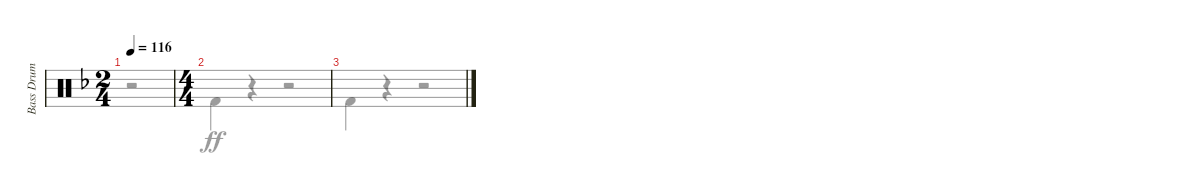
\track ("Bass Drum" "Bass Drum") {instrument percussion}
\staff {score}
\articulation defaults
\voice
\ts (2 4)
\tempo 116
\clef neutral
\ks dminor
|
\ts (4 4)
\ks f
|
\voice
\clef neutral
\ks dminor
r.2{dy ff} |
\ks f "Kick (hit) 2".4
r.4 r.2 |
"Kick (hit) 2".4 r.4 r.2
